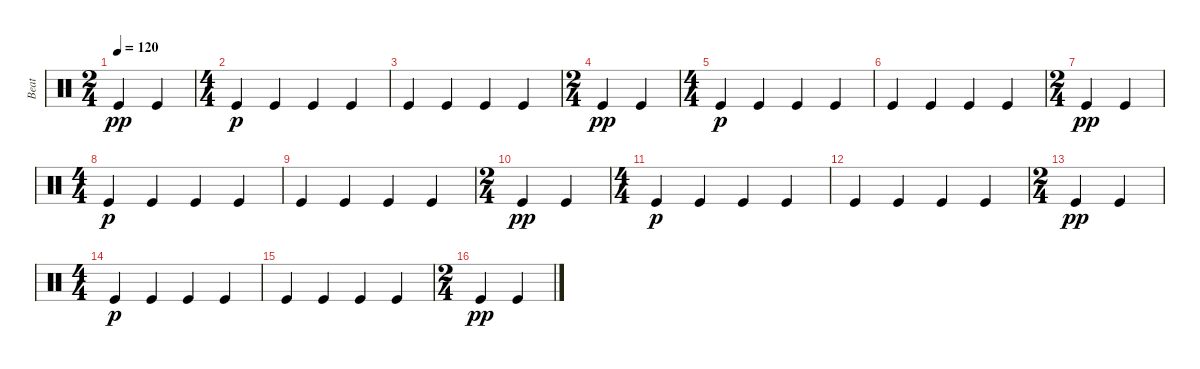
\track ("Beat" "Beat") {instrument percussion}
\staff {score}
\articulation defaults
\ts (2 4)
\tempo 120
\clef neutral
\ks c "Kick (hit)".4{dy pp} "Kick (hit)".4
|
\ts (4 4)
"Kick (hit)".4{dy p} "Kick (hit)".4 "Kick (hit)".4 "Kick (hit)".4 |
"Kick (hit)".4 "Kick (hit)".4 "Kick (hit)".4 "Kick (hit)".4 |
\ts (2 4)
"Kick (hit)".4{dy pp} "Kick (hit)".4 |
\ts (4 4)
"Kick (hit)".4{dy p} "Kick (hit)".4 "Kick (hit)".4 "Kick (hit)".4 |
"Kick (hit)".4 "Kick (hit)".4 "Kick (hit)".4 "Kick (hit)".4 |
\ts (2 4)
"Kick (hit)".4{dy pp} "Kick (hit)".4 |
\ts (4 4)
"Kick (hit)".4{dy p} "Kick (hit)".4 "Kick (hit)".4 "Kick (hit)".4 |
"Kick (hit)".4 "Kick (hit)".4 "Kick (hit)".4 "Kick (hit)".4 |
\ts (2 4)
"Kick (hit)".4{dy pp} "Kick (hit)".4 |
\ts (4 4)
"Kick (hit)".4{dy p} "Kick (hit)".4 "Kick (hit)".4 "Kick (hit)".4 |
"Kick (hit)".4 "Kick (hit)".4 "Kick (hit)".4 "Kick (hit)".4 |
\ts (2 4)
"Kick (hit)".4{dy pp} "Kick (hit)".4 |
\ts (4 4)
"Kick (hit)".4{dy p} "Kick (hit)".4 "Kick (hit)".4 "Kick (hit)".4 |
"Kick (hit)".4 "Kick (hit)".4 "Kick (hit)".4 "Kick (hit)".4 |
\ts (2 4)
"Kick (hit)".4{dy pp} "Kick (hit)".4
